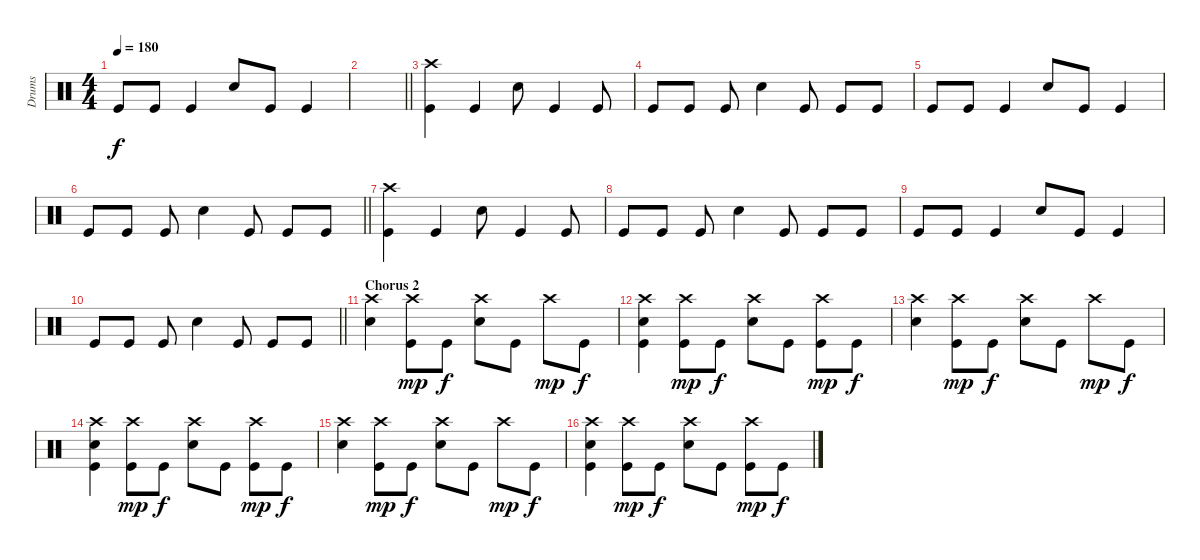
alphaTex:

\track ("Drums" "Drums") {instrument percussion}
\staff {score}
\articulation defaults
\ts (4 4)
\tempo 180
\clef neutral
\ks c "Kick (hit)".8{dy f} "Kick (hit)".8 "Kick (hit)".4 "Snare (hit) 2".8 "Kick (hit)".8 "Kick (hit)".4
|
\barLineRight lightlight
|
("Crash high (hit)" "Kick (hit)").4 "Kick (hit)".4 "Snare (hit) 2".8 "Kick (hit)".4 "Kick (hit)".8 |
"Kick (hit)".8 "Kick (hit)".8 "Kick (hit)".8 "Snare (hit) 2".4 "Kick (hit)".8 "Kick (hit)".8 "Kick (hit)".8 |
"Kick (hit)".8 "Kick (hit)".8 "Kick (hit)".4 "Snare (hit) 2".8 "Kick (hit)".8 "Kick (hit)".4 |
\barLineRight lightlight "Kick (hit)".8 "Kick (hit)".8 "Kick (hit)".8 "Snare (hit) 2".4 "Kick (hit)".8 "Kick (hit)".8 "Kick (hit)".8
|
("Crash high (hit)" "Kick (hit)").4 "Kick (hit)".4 "Snare (hit) 2".8 "Kick (hit)".4 "Kick (hit)".8 |
"Kick (hit)".8 "Kick (hit)".8 "Kick (hit)".8 "Snare (hit) 2".4 "Kick (hit)".8 "Kick (hit)".8 "Kick (hit)".8 |
"Kick (hit)".8 "Kick (hit)".8 "Kick (hit)".4 "Snare (hit) 2".8 "Kick (hit)".8 "Kick (hit)".4 |
\barLineRight lightlight "Kick (hit)".8 "Kick (hit)".8 "Kick (hit)".8 "Snare (hit) 2".4 "Kick (hit)".8 "Kick (hit)".8 "Kick (hit)".8
|
\section ("" "Chorus 2")
("Crash high (hit)" "Snare (hit) 2").4 ("Crash high (hit)" "Kick (hit)").8{dy mp} "Kick (hit)".8{dy f} ("Snare (hit) 2" "Crash high (hit)").8 "Kick (hit)".8 "Crash high (hit)".8{dy mp} "Kick (hit)".8{dy f} |
("Snare (hit) 2" "Crash high (hit)" "Kick (hit)").4 ("Crash high (hit)" "Kick (hit)").8{dy mp} "Kick (hit)".8{dy f} ("Crash high (hit)" "Snare (hit) 2").8 "Kick (hit)".8 ("Crash high (hit)" "Kick (hit)").8{dy mp} "Kick (hit)".8{dy f} |
("Crash high (hit)" "Snare (hit) 2").4 ("Crash high (hit)" "Kick (hit)").8{dy mp} "Kick (hit)".8{dy f} ("Snare (hit) 2" "Crash high (hit)").8 "Kick (hit)".8 "Crash high (hit)".8{dy mp} "Kick (hit)".8{dy f} |
("Snare (hit) 2" "Crash high (hit)" "Kick (hit)").4 ("Crash high (hit)" "Kick (hit)").8{dy mp} "Kick (hit)".8{dy f} ("Crash high (hit)" "Snare (hit) 2").8 "Kick (hit)".8 ("Crash high (hit)" "Kick (hit)").8{dy mp} "Kick (hit)".8{dy f} |
("Crash high (hit)" "Snare (hit) 2").4 ("Crash high (hit)" "Kick (hit)").8{dy mp} "Kick (hit)".8{dy f} ("Snare (hit) 2" "Crash high (hit)").8 "Kick (hit)".8 "Crash high (hit)".8{dy mp} "Kick (hit)".8{dy f} |
("Snare (hit) 2" "Crash high (hit)" "Kick (hit)").4 ("Crash high (hit)" "Kick (hit)").8{dy mp} "Kick (hit)".8{dy f} ("Crash high (hit)" "Snare (hit) 2").8 "Kick (hit)".8 ("Crash high (hit)" "Kick (hit)").8{dy mp} "Kick (hit)".8{dy f}
